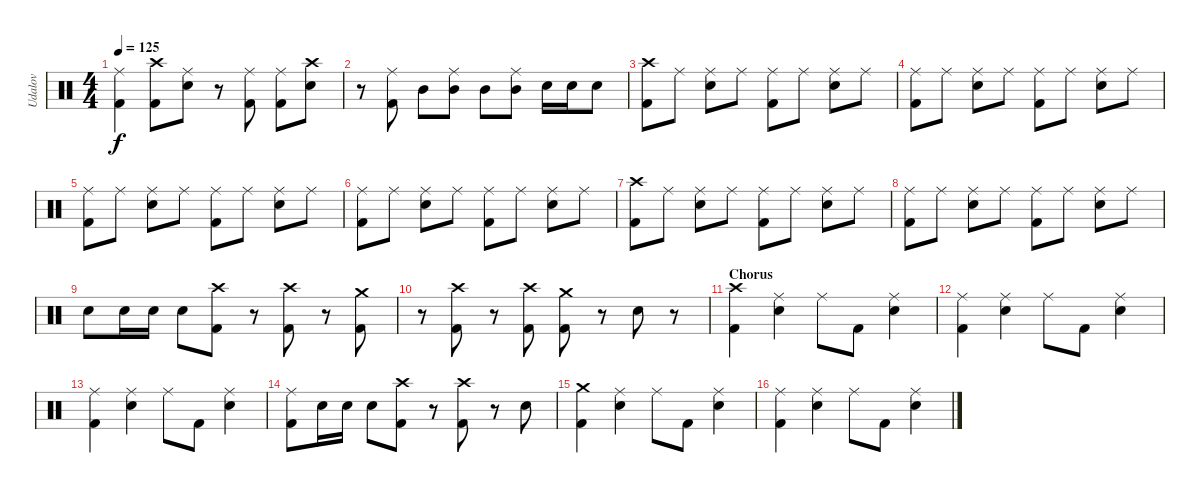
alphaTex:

\track ("Udalov" "Udalov") {instrument percussion}
\staff {score}
\articulation defaults
\ts (4 4)
\tempo 125
\clef neutral
\ks c
("Kick (hit) 2" "Ride (middle)").4{dy f} ("Kick (hit) 2" "Crash high (hit)").8 ("Snare (hit) 2" "Ride (middle)").8 r.8 ("Kick (hit) 2" "Ride (middle)").8 ("Kick (hit) 2" "Ride (middle)").8 ("Snare (hit) 2" "Crash high (hit)").8 |
r.8 ("Kick (hit) 2" "Ride (middle)").8 "Mid Tom (hit)".8 ("Mid Tom (hit)" "Ride (middle)").8 "Mid Tom (hit)".8 ("Mid Tom (hit)" "Ride (middle)").8 "Electric Snare (hit)".16 "Electric Snare (hit)".16 "Electric Snare (hit)".8 |
("Kick (hit) 2" "Crash high (hit)").8 "Ride (middle)".8 ("Snare (hit) 2" "Ride (middle)").8 "Ride (middle)".8 ("Kick (hit) 2" "Ride (middle)").8 "Ride (middle)".8 ("Snare (hit) 2" "Ride (middle)").8 "Ride (middle)".8 |
("Kick (hit) 2" "Ride (middle)").8 "Ride (middle)".8 ("Snare (hit) 2" "Ride (middle)").8 "Ride (middle)".8 ("Kick (hit) 2" "Ride (middle)").8 "Ride (middle)".8 ("Snare (hit) 2" "Ride (middle)").8 "Ride (middle)".8 |
("Kick (hit) 2" "Ride (middle)").8 "Ride (middle)".8 ("Snare (hit) 2" "Ride (middle)").8 "Ride (middle)".8 ("Kick (hit) 2" "Ride (middle)").8 "Ride (middle)".8 ("Snare (hit) 2" "Ride (middle)").8 "Ride (middle)".8 |
("Kick (hit) 2" "Ride (middle)").8 "Ride (middle)".8 ("Snare (hit) 2" "Ride (middle)").8 "Ride (middle)".8 ("Kick (hit) 2" "Ride (middle)").8 "Ride (middle)".8 ("Snare (hit) 2" "Ride (middle)").8 "Ride (middle)".8 |
("Kick (hit) 2" "Crash high (hit)").8 "Ride (middle)".8 ("Snare (hit) 2" "Ride (middle)").8 "Ride (middle)".8 ("Kick (hit) 2" "Ride (middle)").8 "Ride (middle)".8 ("Snare (hit) 2" "Ride (middle)").8 "Ride (middle)".8 |
("Kick (hit) 2" "Ride (middle)").8 "Ride (middle)".8 ("Snare (hit) 2" "Ride (middle)").8 "Ride (middle)".8 ("Kick (hit) 2" "Ride (middle)").8 "Ride (middle)".8 ("Snare (hit) 2" "Ride (middle)").8 "Ride (middle)".8 |
"Snare (hit) 2".8 "Snare (hit) 2".16 "Snare (hit) 2".16 "Snare (hit) 2".8 ("Kick (hit) 2" "Crash high (hit)").8 r.8 ("Kick (hit) 2" "Crash high (hit)").8 r.8 ("Kick (hit) 2" "Crash medium (hit)").8 |
r.8 ("Kick (hit) 2" "Crash high (hit)").8 r.8 ("Kick (hit) 2" "Crash high (hit)").8 ("Kick (hit) 2" "Crash medium (hit)").8 r.8 "Snare (hit) 2".8 r.8 |
\section ("" "Chorus")
("Kick (hit) 2" "Crash high (hit)").4 ("Snare (hit) 2" "Ride (middle)").4 "Ride (middle)".8 "Kick (hit) 2".8 ("Snare (hit) 2" "Ride (middle)").4 |
("Kick (hit) 2" "Ride (middle)").4 ("Snare (hit) 2" "Ride (middle)").4 "Ride (middle)".8 "Kick (hit) 2".8 ("Snare (hit) 2" "Ride (middle)").4 |
("Kick (hit) 2" "Ride (middle)").4 ("Snare (hit) 2" "Ride (middle)").4 "Ride (middle)".8 "Kick (hit) 2".8 ("Snare (hit) 2" "Ride (middle)").4 |
("Kick (hit) 2" "Ride (middle)").8 "Snare (hit) 2".16 "Snare (hit) 2".16 "Snare (hit) 2".8 ("Kick (hit) 2" "Crash high (hit)").8 r.8 ("Kick (hit) 2" "Crash high (hit)").8 r.8 "Snare (hit) 2".8 |
("Kick (hit) 2" "Crash medium (hit)").4 ("Snare (hit) 2" "Ride (middle)").4 "Ride (middle)".8 "Kick (hit) 2".8 ("Snare (hit) 2" "Ride (middle)").4 |
("Kick (hit) 2" "Ride (middle)").4 ("Snare (hit) 2" "Ride (middle)").4 "Ride (middle)".8 "Kick (hit) 2".8 ("Snare (hit) 2" "Ride (middle)").4
